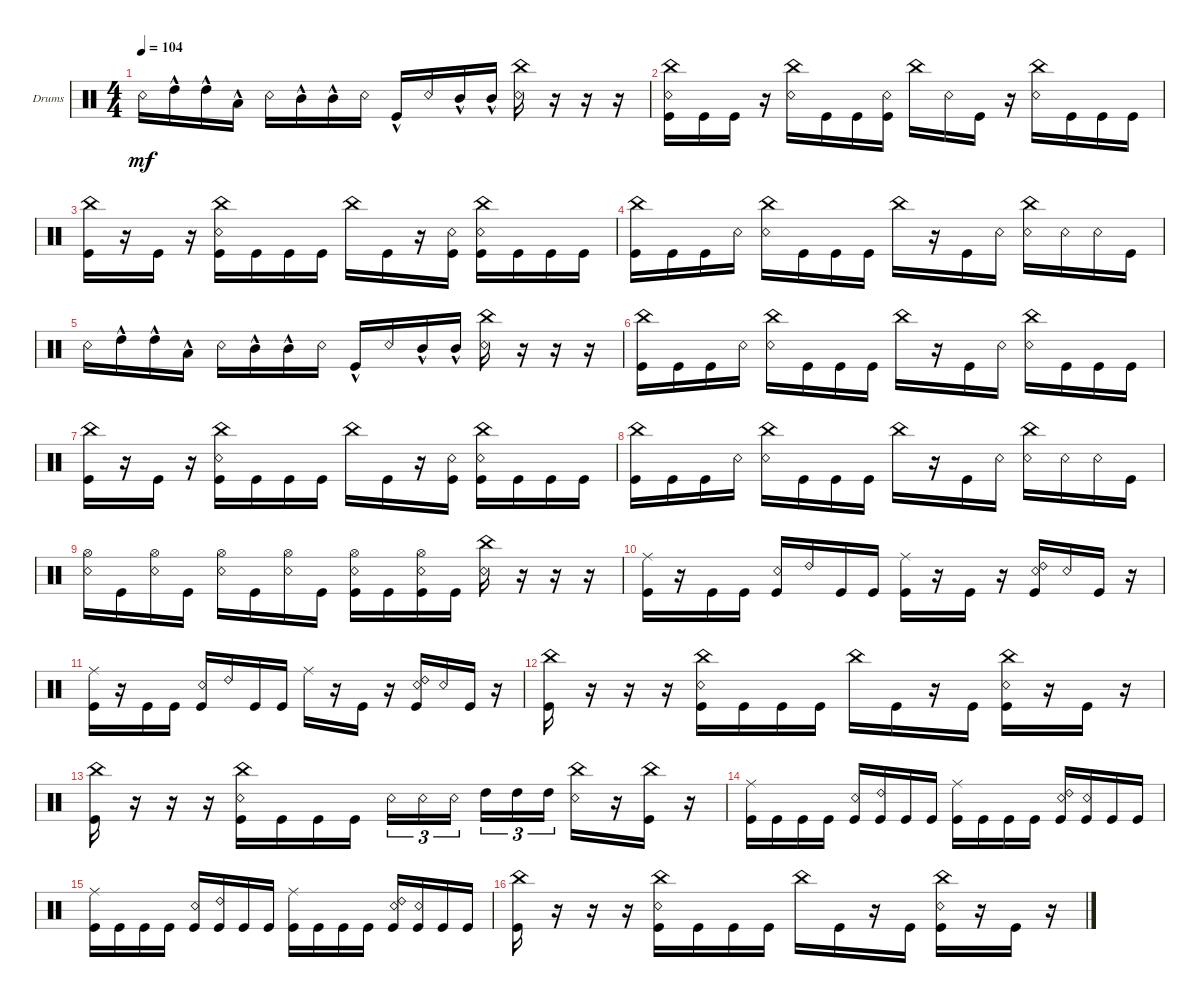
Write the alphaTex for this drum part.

\defaultSystemsLayout 4
\bracketExtendMode groupsimilarinstruments
\firstSystemTrackNameOrientation horizontal
\otherSystemsTrackNameOrientation horizontal
\track ("Drumkit" "Drums") {instrument percussion}
\staff {score}
\articulation defaults
\ts (4 4)
\tempo 104
\clef neutral
\ks c "Snare (rim shot)".16{dy mf} "High Tom (hit)"{hac}.16 "High Tom (hit)"{hac}.16 "Low Tom (hit)"{hac}.16 "Snare (rim shot)".16 "Mid Tom (hit)"{hac}.16 "Mid Tom (hit)"{hac}.16 "Snare (rim shot)".16 "Kick (hit)"{hac}.16 "Snare (rim shot)".16 "Mid Tom (hit)"{hac}.16 "Mid Tom (hit)"{hac}.16
("Snare (rim shot)" "China (hit)").16 r.16 r.16 r.16 |
("Kick (hit)" "China (hit)" "Snare (rim shot)").16 "Kick (hit)".16 "Kick (hit)".16 r.16 ("Snare (rim shot)" "China (hit)").16 "Kick (hit)".16 "Kick (hit)".16 ("Kick (hit)" "Snare (rim shot)").16 "China (hit)".16 "Snare (rim shot)".16 "Kick (hit)".16 r.16 ("China (hit)" "Snare (rim shot)").16 "Kick (hit)".16 "Kick (hit)".16 "Kick (hit)".16 |
("Kick (hit)" "China (hit)").16 r.16 "Kick (hit)".16 r.16 ("Kick (hit)" "China (hit)" "Snare (rim shot)").16 "Kick (hit)".16 "Kick (hit)".16 "Kick (hit)".16 "China (hit)".16 "Kick (hit)".16 r.16 ("Kick (hit)" "Snare (rim shot)").16 ("Kick (hit)" "China (hit)" "Snare (rim shot)").16 "Kick (hit)".16 "Kick (hit)".16 "Kick (hit)".16 |
("Kick (hit)" "China (hit)").16 "Kick (hit)".16 "Kick (hit)".16 "Snare (rim shot)".16 ("Snare (rim shot)" "China (hit)").16 "Kick (hit)".16 "Kick (hit)".16 "Kick (hit)".16 "China (hit)".16 r.16 "Kick (hit)".16 "Snare (rim shot)".16 ("Snare (rim shot)" "China (hit)").16 "Snare (rim shot)".16 "Snare (rim shot)".16 "Kick (hit)".16 |
"Snare (rim shot)".16 "High Tom (hit)"{hac}.16 "High Tom (hit)"{hac}.16 "Low Tom (hit)"{hac}.16 "Snare (rim shot)".16 "Mid Tom (hit)"{hac}.16 "Mid Tom (hit)"{hac}.16 "Snare (rim shot)".16 "Kick (hit)"{hac}.16 "Snare (rim shot)".16 "Mid Tom (hit)"{hac}.16 "Mid Tom (hit)"{hac}.16 ("Snare (rim shot)" "China (hit)").16 r.16 r.16 r.16 |
("Kick (hit)" "China (hit)").16 "Kick (hit)".16 "Kick (hit)".16 "Snare (rim shot)".16 ("Snare (rim shot)" "China (hit)").16 "Kick (hit)".16 "Kick (hit)".16 "Kick (hit)".16 "China (hit)".16 r.16 "Kick (hit)".16 "Snare (rim shot)".16 ("Snare (rim shot)" "China (hit)").16 "Kick (hit)".16 "Kick (hit)".16 "Kick (hit)".16 |
("Kick (hit)" "China (hit)").16 r.16 "Kick (hit)".16 r.16 ("Kick (hit)" "China (hit)" "Snare (rim shot)").16 "Kick (hit)".16 "Kick (hit)".16 "Kick (hit)".16 "China (hit)".16 "Kick (hit)".16 r.16 ("Kick (hit)" "Snare (rim shot)").16 ("Kick (hit)" "China (hit)" "Snare (rim shot)").16 "Kick (hit)".16 "Kick (hit)".16 "Kick (hit)".16 |
("Kick (hit)" "China (hit)").16 "Kick (hit)".16 "Kick (hit)".16 "Snare (rim shot)".16 ("Snare (rim shot)" "China (hit)").16 "Kick (hit)".16 "Kick (hit)".16 "Kick (hit)".16 "China (hit)".16 r.16 "Kick (hit)".16 "Snare (rim shot)".16 ("Snare (rim shot)" "China (hit)").16 "Snare (rim shot)".16 "Snare (rim shot)".16 "Kick (hit)".16 |
("Hi-Hat (open)" "Snare (rim shot)").16 "Kick (hit)".16 ("Snare (rim shot)" "Hi-Hat (open)").16 "Kick (hit)".16 ("Snare (rim shot)" "Hi-Hat (open)").16 "Kick (hit)".16 ("Snare (rim shot)" "Hi-Hat (open)").16 "Kick (hit)".16 ("Snare (rim shot)" "Hi-Hat (open)" "Kick (hit)").16 "Kick (hit)".16 ("Snare (rim shot)" "Hi-Hat (open)" "Kick (hit)").16 "Kick (hit)".16 ("Snare (rim shot)" "China (hit)").16 r.16 r.16 r.16 |
("Kick (hit)" "Ride (middle)").16 r.16 "Kick (hit)".16 "Kick (hit)".16 ("Kick (hit)" "Snare (rim shot)").16 "Ride (bell) 2".16 "Kick (hit)".16 "Kick (hit)".16 ("Kick (hit)" "Ride (middle)").16 r.16 "Kick (hit)".16 r.16 ("Kick (hit)" "Snare (rim shot)" "Ride (bell) 2").16 "Snare (rim shot)".16 "Kick (hit)".16 r.16 |
("Kick (hit)" "Ride (middle)").16 r.16 "Kick (hit)".16 "Kick (hit)".16 ("Kick (hit)" "Snare (rim shot)").16 "Ride (bell) 2".16 "Kick (hit)".16 "Kick (hit)".16 "Ride (middle)".16 r.16 "Kick (hit)".16 r.16 ("Kick (hit)" "Snare (rim shot)" "Ride (bell) 2").16 "Snare (rim shot)".16 "Kick (hit)".16 r.16 |
("China (hit)" "Kick (hit)").16 r.16 r.16 r.16 ("Kick (hit)" "China (hit)" "Snare (rim shot)").16 "Kick (hit)".16 "Kick (hit)".16 "Kick (hit)".16 "China (hit)".16 "Kick (hit)".16 r.16 "Kick (hit)".16 ("Kick (hit)" "Snare (rim shot)" "China (hit)").16 r.16 "Kick (hit)".16 r.16 |
("China (hit)" "Kick (hit)").16 r.16 r.16 r.16 ("Kick (hit)" "China (hit)" "Snare (rim shot)").16 "Kick (hit)".16 "Kick (hit)".16 "Kick (hit)".16 "Snare (rim shot)".16{tu (3 2)} "Snare (rim shot)".16{tu (3 2)} "Snare (rim shot)".16{tu (3 2)} "High Tom (hit)".16{tu (3 2)} "High Tom (hit)".16{tu (3 2)} "High Tom (hit)".16{tu (3 2)} ("Snare (rim shot)" "China (hit)").16 r.16 ("China (hit)" "Kick (hit)").16 r.16 |
("Kick (hit)" "Ride (middle)").16 "Kick (hit)".16 "Kick (hit)".16 "Kick (hit)".16 ("Kick (hit)" "Snare (rim shot)").16 ("Ride (bell) 2" "Kick (hit)").16 "Kick (hit)".16 "Kick (hit)".16 ("Kick (hit)" "Ride (middle)").16 "Kick (hit)".16 "Kick (hit)".16 "Kick (hit)".16 ("Kick (hit)" "Snare (rim shot)" "Ride (bell) 2").16 ("Kick (hit)" "Snare (rim shot)").16 "Kick (hit)".16 "Kick (hit)".16 |
("Kick (hit)" "Ride (middle)").16 "Kick (hit)".16 "Kick (hit)".16 "Kick (hit)".16 ("Kick (hit)" "Snare (rim shot)").16 ("Ride (bell) 2" "Kick (hit)").16 "Kick (hit)".16 "Kick (hit)".16 ("Kick (hit)" "Ride (middle)").16 "Kick (hit)".16 "Kick (hit)".16 "Kick (hit)".16 ("Kick (hit)" "Snare (rim shot)" "Ride (bell) 2").16 ("Kick (hit)" "Snare (rim shot)").16 "Kick (hit)".16 "Kick (hit)".16 |
("China (hit)" "Kick (hit)").16 r.16 r.16 r.16 ("Kick (hit)" "China (hit)" "Snare (rim shot)").16 "Kick (hit)".16 "Kick (hit)".16 "Kick (hit)".16 "China (hit)".16 "Kick (hit)".16 r.16 "Kick (hit)".16 ("Kick (hit)" "Snare (rim shot)" "China (hit)").16 r.16 "Kick (hit)".16 r.16
